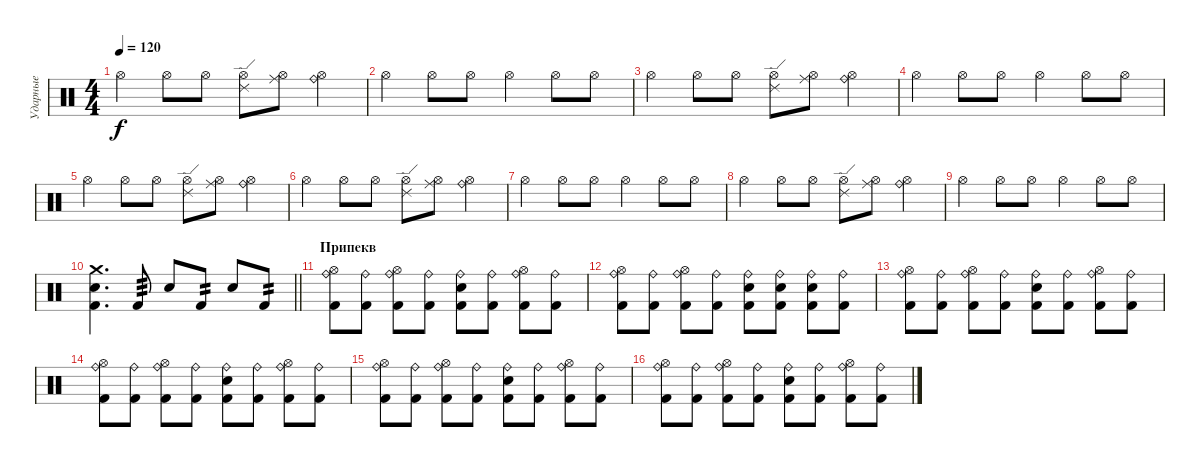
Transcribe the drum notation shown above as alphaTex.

\track ("Ударные" "Ударные") {instrument percussion}
\staff {score}
\articulation defaults
\ts (4 4)
\tempo 120
\clef neutral
\ks c "Hi-Hat (open)".4{dy f} "Hi-Hat (open)".8 "Hi-Hat (open)".8
("Hi-Hat (open)" "Ride (edge) 2").8 ("Hi-Hat (open)" "Ride (middle)").8 ("Hi-Hat (open)" "Ride (bell)").4 |
"Hi-Hat (open)".4 "Hi-Hat (open)".8 "Hi-Hat (open)".8 "Hi-Hat (open)".4 "Hi-Hat (open)".8 "Hi-Hat (open)".8 |
"Hi-Hat (open)".4 "Hi-Hat (open)".8 "Hi-Hat (open)".8 ("Hi-Hat (open)" "Ride (edge) 2").8 ("Hi-Hat (open)" "Ride (middle)").8 ("Hi-Hat (open)" "Ride (bell)").4 |
"Hi-Hat (open)".4 "Hi-Hat (open)".8 "Hi-Hat (open)".8 "Hi-Hat (open)".4 "Hi-Hat (open)".8 "Hi-Hat (open)".8 |
"Hi-Hat (open)".4 "Hi-Hat (open)".8 "Hi-Hat (open)".8 ("Hi-Hat (open)" "Ride (edge) 2").8 ("Hi-Hat (open)" "Ride (middle)").8 ("Hi-Hat (open)" "Ride (bell)").4 |
"Hi-Hat (open)".4 "Hi-Hat (open)".8 "Hi-Hat (open)".8 ("Hi-Hat (open)" "Ride (edge) 2").8 ("Hi-Hat (open)" "Ride (middle)").8 ("Hi-Hat (open)" "Ride (bell)").4 |
"Hi-Hat (open)".4 "Hi-Hat (open)".8 "Hi-Hat (open)".8 "Hi-Hat (open)".4 "Hi-Hat (open)".8 "Hi-Hat (open)".8 |
"Hi-Hat (open)".4 "Hi-Hat (open)".8 "Hi-Hat (open)".8 ("Hi-Hat (open)" "Ride (edge) 2").8 ("Hi-Hat (open)" "Ride (middle)").8 ("Hi-Hat (open)" "Ride (bell)").4 |
"Hi-Hat (open)".4 "Hi-Hat (open)".8 "Hi-Hat (open)".8 "Hi-Hat (open)".4 "Hi-Hat (open)".8 "Hi-Hat (open)".8 |
\barLineRight lightlight
("Kick (hit) 2" "Snare (hit) 2" "Crash medium (hit)").4{d volume 14} "Kick (hit) 2".8{tp 3} "Snare (hit) 2".8 "Kick (hit) 2".8{tp 2} "Snare (hit) 2".8 "Kick (hit) 2".8{tp 2} |
\section ("" "Припекв")
("Kick (hit) 2" "Ride (bell)" "Hi-Hat (open)").8 ("Kick (hit) 2" "Ride (bell)").8 ("Kick (hit) 2" "Ride (bell)" "Hi-Hat (open)").8 ("Kick (hit) 2" "Ride (bell)").8 ("Kick (hit) 2" "Ride (bell)" "Snare (hit) 2").8 ("Kick (hit) 2" "Ride (bell)").8 ("Kick (hit) 2" "Ride (bell)" "Hi-Hat (open)").8 ("Kick (hit) 2" "Ride (bell)").8 |
("Kick (hit) 2" "Ride (bell)" "Hi-Hat (open)").8 ("Kick (hit) 2" "Ride (bell)").8 ("Kick (hit) 2" "Ride (bell)" "Hi-Hat (open)").8 ("Kick (hit) 2" "Ride (bell)").8 ("Kick (hit) 2" "Ride (bell)" "Snare (hit) 2").8 ("Kick (hit) 2" "Ride (bell)" "Snare (hit) 2").8 ("Kick (hit) 2" "Ride (bell)" "Snare (hit) 2").8 ("Kick (hit) 2" "Ride (bell)").8 |
("Kick (hit) 2" "Ride (bell)" "Hi-Hat (open)").8 ("Kick (hit) 2" "Ride (bell)").8 ("Kick (hit) 2" "Ride (bell)" "Hi-Hat (open)").8 ("Kick (hit) 2" "Ride (bell)").8 ("Kick (hit) 2" "Ride (bell)" "Snare (hit) 2").8 ("Kick (hit) 2" "Ride (bell)").8 ("Kick (hit) 2" "Ride (bell)" "Hi-Hat (open)").8 ("Kick (hit) 2" "Ride (bell)").8 |
("Kick (hit) 2" "Ride (bell)" "Hi-Hat (open)").8 ("Kick (hit) 2" "Ride (bell)").8 ("Kick (hit) 2" "Ride (bell)" "Hi-Hat (open)").8 ("Kick (hit) 2" "Ride (bell)").8 ("Kick (hit) 2" "Ride (bell)" "Snare (hit) 2").8 ("Kick (hit) 2" "Ride (bell)").8 ("Kick (hit) 2" "Ride (bell)" "Hi-Hat (open)").8 ("Kick (hit) 2" "Ride (bell)").8 |
("Kick (hit) 2" "Ride (bell)" "Hi-Hat (open)").8 ("Kick (hit) 2" "Ride (bell)").8 ("Kick (hit) 2" "Ride (bell)" "Hi-Hat (open)").8 ("Kick (hit) 2" "Ride (bell)").8 ("Kick (hit) 2" "Ride (bell)" "Snare (hit) 2").8 ("Kick (hit) 2" "Ride (bell)").8 ("Kick (hit) 2" "Ride (bell)" "Hi-Hat (open)").8 ("Kick (hit) 2" "Ride (bell)").8 |
("Kick (hit) 2" "Ride (bell)" "Hi-Hat (open)").8 ("Kick (hit) 2" "Ride (bell)").8 ("Kick (hit) 2" "Ride (bell)" "Hi-Hat (open)").8 ("Kick (hit) 2" "Ride (bell)").8 ("Kick (hit) 2" "Ride (bell)" "Snare (hit) 2").8 ("Kick (hit) 2" "Ride (bell)").8 ("Kick (hit) 2" "Ride (bell)" "Hi-Hat (open)").8 ("Kick (hit) 2" "Ride (bell)").8
